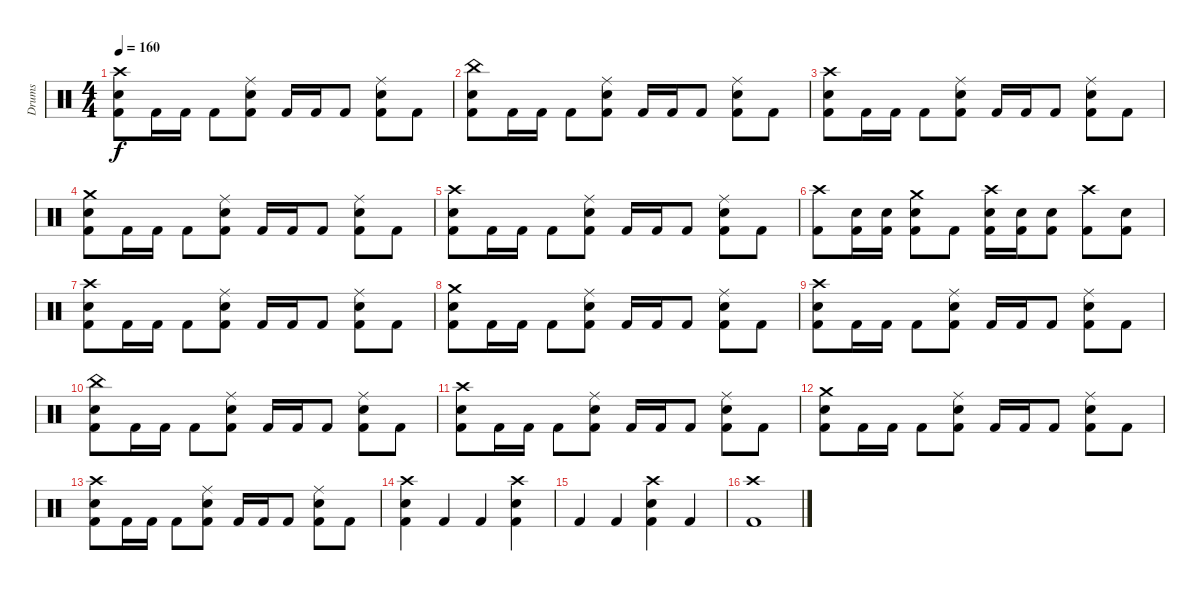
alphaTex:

\track ("Drums" "Drums") {instrument percussion}
\staff {score}
\articulation defaults
\ts (4 4)
\tempo 160
\clef neutral
\ks c
("Crash high (hit)" "Electric Snare (hit)" "Kick (hit) 2").8{dy f} "Kick (hit) 2".16 "Kick (hit) 2".16 "Kick (hit) 2".8 ("Ride (middle)" "Electric Snare (hit)" "Kick (hit) 2").8 "Kick (hit) 2".16 "Kick (hit) 2".16 "Kick (hit) 2".8 ("Ride (middle)" "Electric Snare (hit)" "Kick (hit) 2").8 "Kick (hit) 2".8 |
("China (hit)" "Electric Snare (hit)" "Kick (hit) 2").8 "Kick (hit) 2".16 "Kick (hit) 2".16 "Kick (hit) 2".8 ("Ride (middle)" "Electric Snare (hit)" "Kick (hit) 2").8 "Kick (hit) 2".16 "Kick (hit) 2".16 "Kick (hit) 2".8 ("Ride (middle)" "Electric Snare (hit)" "Kick (hit) 2").8 "Kick (hit) 2".8 |
("Crash high (hit)" "Electric Snare (hit)" "Kick (hit) 2").8 "Kick (hit) 2".16 "Kick (hit) 2".16 "Kick (hit) 2".8 ("Ride (middle)" "Electric Snare (hit)" "Kick (hit) 2").8 "Kick (hit) 2".16 "Kick (hit) 2".16 "Kick (hit) 2".8 ("Ride (middle)" "Electric Snare (hit)" "Kick (hit) 2").8 "Kick (hit) 2".8 |
("Crash medium (hit)" "Electric Snare (hit)" "Kick (hit) 2").8 "Kick (hit) 2".16 "Kick (hit) 2".16 "Kick (hit) 2".8 ("Ride (middle)" "Electric Snare (hit)" "Kick (hit) 2").8 "Kick (hit) 2".16 "Kick (hit) 2".16 "Kick (hit) 2".8 ("Ride (middle)" "Electric Snare (hit)" "Kick (hit) 2").8 "Kick (hit) 2".8 |
("Crash high (hit)" "Electric Snare (hit)" "Kick (hit) 2").8 "Kick (hit) 2".16 "Kick (hit) 2".16 "Kick (hit) 2".8 ("Ride (middle)" "Electric Snare (hit)" "Kick (hit) 2").8 "Kick (hit) 2".16 "Kick (hit) 2".16 "Kick (hit) 2".8 ("Ride (middle)" "Electric Snare (hit)" "Kick (hit) 2").8 "Kick (hit) 2".8 |
("Crash high (hit)" "Kick (hit) 2").8 ("Electric Snare (hit)" "Kick (hit) 2").16 ("Electric Snare (hit)" "Kick (hit) 2").16 ("Crash medium (hit)" "Electric Snare (hit)" "Kick (hit) 2").8 "Kick (hit) 2".8 ("Crash high (hit)" "Electric Snare (hit)" "Kick (hit) 2").16 ("Electric Snare (hit)" "Kick (hit) 2").16 ("Electric Snare (hit)" "Kick (hit) 2").8 ("Crash high (hit)" "Kick (hit) 2").8 ("Electric Snare (hit)" "Kick (hit) 2").8 |
("Crash high (hit)" "Electric Snare (hit)" "Kick (hit) 2").8 "Kick (hit) 2".16 "Kick (hit) 2".16 "Kick (hit) 2".8 ("Ride (middle)" "Electric Snare (hit)" "Kick (hit) 2").8 "Kick (hit) 2".16 "Kick (hit) 2".16 "Kick (hit) 2".8 ("Ride (middle)" "Electric Snare (hit)" "Kick (hit) 2").8 "Kick (hit) 2".8 |
("Crash medium (hit)" "Electric Snare (hit)" "Kick (hit) 2").8 "Kick (hit) 2".16 "Kick (hit) 2".16 "Kick (hit) 2".8 ("Ride (middle)" "Electric Snare (hit)" "Kick (hit) 2").8 "Kick (hit) 2".16 "Kick (hit) 2".16 "Kick (hit) 2".8 ("Ride (middle)" "Electric Snare (hit)" "Kick (hit) 2").8 "Kick (hit) 2".8 |
("Crash high (hit)" "Electric Snare (hit)" "Kick (hit) 2").8 "Kick (hit) 2".16 "Kick (hit) 2".16 "Kick (hit) 2".8 ("Ride (middle)" "Electric Snare (hit)" "Kick (hit) 2").8 "Kick (hit) 2".16 "Kick (hit) 2".16 "Kick (hit) 2".8 ("Ride (middle)" "Electric Snare (hit)" "Kick (hit) 2").8 "Kick (hit) 2".8 |
("China (hit)" "Electric Snare (hit)" "Kick (hit) 2").8 "Kick (hit) 2".16 "Kick (hit) 2".16 "Kick (hit) 2".8 ("Ride (middle)" "Electric Snare (hit)" "Kick (hit) 2").8 "Kick (hit) 2".16 "Kick (hit) 2".16 "Kick (hit) 2".8 ("Ride (middle)" "Electric Snare (hit)" "Kick (hit) 2").8 "Kick (hit) 2".8 |
("Crash high (hit)" "Electric Snare (hit)" "Kick (hit) 2").8 "Kick (hit) 2".16 "Kick (hit) 2".16 "Kick (hit) 2".8 ("Ride (middle)" "Electric Snare (hit)" "Kick (hit) 2").8 "Kick (hit) 2".16 "Kick (hit) 2".16 "Kick (hit) 2".8 ("Ride (middle)" "Electric Snare (hit)" "Kick (hit) 2").8 "Kick (hit) 2".8 |
("Crash medium (hit)" "Electric Snare (hit)" "Kick (hit) 2").8 "Kick (hit) 2".16 "Kick (hit) 2".16 "Kick (hit) 2".8 ("Ride (middle)" "Electric Snare (hit)" "Kick (hit) 2").8 "Kick (hit) 2".16 "Kick (hit) 2".16 "Kick (hit) 2".8 ("Ride (middle)" "Electric Snare (hit)" "Kick (hit) 2").8 "Kick (hit) 2".8 |
("Crash high (hit)" "Electric Snare (hit)" "Kick (hit) 2").8 "Kick (hit) 2".16 "Kick (hit) 2".16 "Kick (hit) 2".8 ("Ride (middle)" "Electric Snare (hit)" "Kick (hit) 2").8 "Kick (hit) 2".16 "Kick (hit) 2".16 "Kick (hit) 2".8 ("Ride (middle)" "Electric Snare (hit)" "Kick (hit) 2").8 "Kick (hit) 2".8 |
("Crash high (hit)" "Electric Snare (hit)" "Kick (hit) 2").4 "Kick (hit) 2".4 "Kick (hit) 2".4 ("Crash high (hit)" "Electric Snare (hit)" "Kick (hit) 2").4 |
"Kick (hit) 2".4 "Kick (hit) 2".4 ("Crash high (hit)" "Electric Snare (hit)" "Kick (hit) 2").4 "Kick (hit) 2".4 |
("Crash high (hit)" "Kick (hit) 2").1
